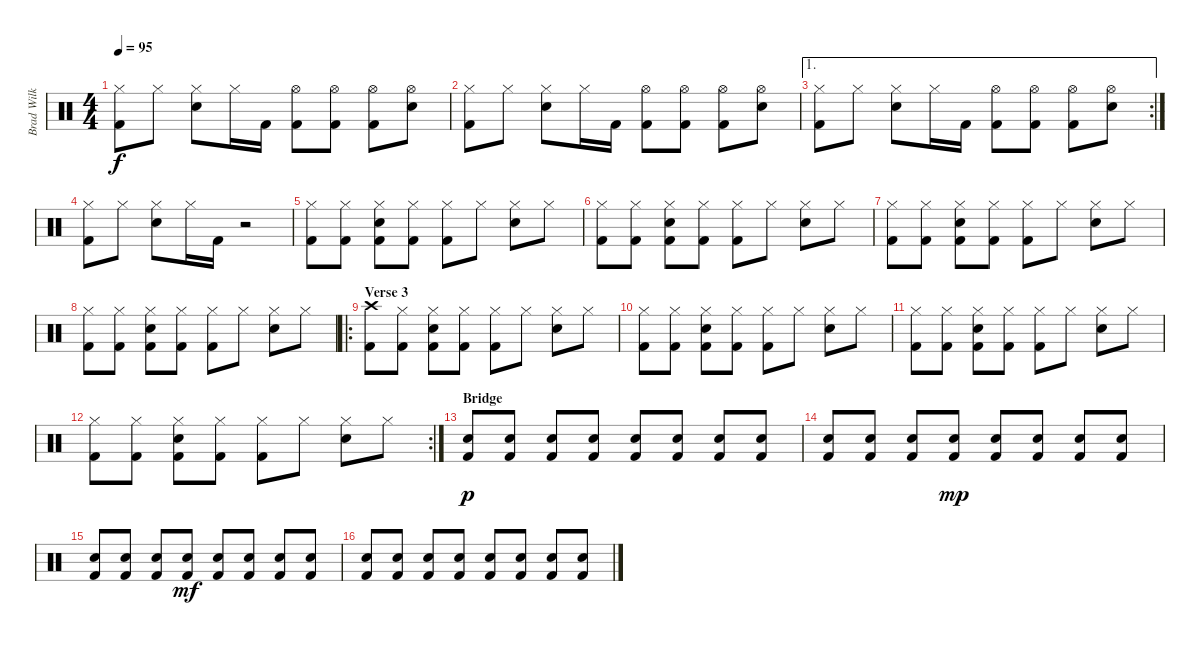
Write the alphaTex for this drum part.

\track ("Brad Wilk" "Brad Wilk") {instrument percussion}
\staff {score}
\articulation defaults
\ts (4 4)
\tempo 95
\clef neutral
\ks c
("Hi-Hat (closed)" "Kick (hit) 2").8{dy f} "Hi-Hat (closed)".8 ("Hi-Hat (closed)" "Electric Snare (hit)").8 "Hi-Hat (closed)".16 "Kick (hit) 2".16 ("Hi-Hat (open)" "Kick (hit) 2").8 ("Hi-Hat (open)" "Kick (hit) 2").8 ("Hi-Hat (open)" "Kick (hit) 2").8 ("Hi-Hat (open)" "Electric Snare (hit)").8 |
("Hi-Hat (closed)" "Kick (hit) 2").8 "Hi-Hat (closed)".8 ("Hi-Hat (closed)" "Electric Snare (hit)").8 "Hi-Hat (closed)".16 "Kick (hit) 2".16 ("Hi-Hat (open)" "Kick (hit) 2").8 ("Hi-Hat (open)" "Kick (hit) 2").8 ("Hi-Hat (open)" "Kick (hit) 2").8 ("Hi-Hat (open)" "Electric Snare (hit)").8 |
\ae 1
\rc 2
("Hi-Hat (closed)" "Kick (hit) 2").8 "Hi-Hat (closed)".8 ("Hi-Hat (closed)" "Electric Snare (hit)").8 "Hi-Hat (closed)".16 "Kick (hit) 2".16 ("Hi-Hat (open)" "Kick (hit) 2").8 ("Hi-Hat (open)" "Kick (hit) 2").8 ("Hi-Hat (open)" "Kick (hit) 2").8 ("Hi-Hat (open)" "Electric Snare (hit)").8 |
("Hi-Hat (closed)" "Kick (hit) 2").8 "Hi-Hat (closed)".8 ("Hi-Hat (closed)" "Electric Snare (hit)").8 "Hi-Hat (closed)".16 "Kick (hit) 2".16 r.2 |
("Hi-Hat (closed)" "Kick (hit) 2").8 ("Hi-Hat (closed)" "Kick (hit) 2").8 ("Hi-Hat (closed)" "Electric Snare (hit)" "Kick (hit) 2").8 ("Hi-Hat (closed)" "Kick (hit) 2").8 ("Hi-Hat (closed)" "Kick (hit) 2").8 "Hi-Hat (closed)".8 ("Hi-Hat (closed)" "Electric Snare (hit)").8 "Hi-Hat (closed)".8 |
("Hi-Hat (closed)" "Kick (hit) 2").8 ("Hi-Hat (closed)" "Kick (hit) 2").8 ("Hi-Hat (closed)" "Electric Snare (hit)" "Kick (hit) 2").8 ("Hi-Hat (closed)" "Kick (hit) 2").8 ("Hi-Hat (closed)" "Kick (hit) 2").8 "Hi-Hat (closed)".8 ("Hi-Hat (closed)" "Electric Snare (hit)").8 "Hi-Hat (closed)".8 |
("Hi-Hat (closed)" "Kick (hit) 2").8 ("Hi-Hat (closed)" "Kick (hit) 2").8 ("Hi-Hat (closed)" "Electric Snare (hit)" "Kick (hit) 2").8 ("Hi-Hat (closed)" "Kick (hit) 2").8 ("Hi-Hat (closed)" "Kick (hit) 2").8 "Hi-Hat (closed)".8 ("Hi-Hat (closed)" "Electric Snare (hit)").8 "Hi-Hat (closed)".8 |
("Hi-Hat (closed)" "Kick (hit) 2").8 ("Hi-Hat (closed)" "Kick (hit) 2").8 ("Hi-Hat (closed)" "Electric Snare (hit)" "Kick (hit) 2").8 ("Hi-Hat (closed)" "Kick (hit) 2").8 ("Hi-Hat (closed)" "Kick (hit) 2").8 "Hi-Hat (closed)".8 ("Hi-Hat (closed)" "Electric Snare (hit)").8 "Hi-Hat (closed)".8 |
\ro
\section ("" "Verse 3")
("Crash high (hit)" "Kick (hit) 2").8 ("Hi-Hat (closed)" "Kick (hit) 2").8 ("Hi-Hat (closed)" "Electric Snare (hit)" "Kick (hit) 2").8 ("Hi-Hat (closed)" "Kick (hit) 2").8 ("Hi-Hat (closed)" "Kick (hit) 2").8 "Hi-Hat (closed)".8 ("Hi-Hat (closed)" "Electric Snare (hit)").8 "Hi-Hat (closed)".8 |
("Hi-Hat (closed)" "Kick (hit) 2").8 ("Hi-Hat (closed)" "Kick (hit) 2").8 ("Hi-Hat (closed)" "Electric Snare (hit)" "Kick (hit) 2").8 ("Hi-Hat (closed)" "Kick (hit) 2").8 ("Hi-Hat (closed)" "Kick (hit) 2").8 "Hi-Hat (closed)".8 ("Hi-Hat (closed)" "Electric Snare (hit)").8 "Hi-Hat (closed)".8 |
("Hi-Hat (closed)" "Kick (hit) 2").8 ("Hi-Hat (closed)" "Kick (hit) 2").8 ("Hi-Hat (closed)" "Electric Snare (hit)" "Kick (hit) 2").8 ("Hi-Hat (closed)" "Kick (hit) 2").8 ("Hi-Hat (closed)" "Kick (hit) 2").8 "Hi-Hat (closed)".8 ("Hi-Hat (closed)" "Electric Snare (hit)").8 "Hi-Hat (closed)".8 |
\rc 2
("Hi-Hat (closed)" "Kick (hit) 2").8 ("Hi-Hat (closed)" "Kick (hit) 2").8 ("Hi-Hat (closed)" "Electric Snare (hit)" "Kick (hit) 2").8 ("Hi-Hat (closed)" "Kick (hit) 2").8 ("Hi-Hat (closed)" "Kick (hit) 2").8 "Hi-Hat (closed)".8 ("Hi-Hat (closed)" "Electric Snare (hit)").8 "Hi-Hat (closed)".8 |
\section ("" "Bridge")
("Electric Snare (hit)" "Kick (hit) 2").8{dy p} ("Electric Snare (hit)" "Kick (hit) 2").8 ("Electric Snare (hit)" "Kick (hit) 2").8 ("Electric Snare (hit)" "Kick (hit) 2").8 ("Electric Snare (hit)" "Kick (hit) 2").8 ("Electric Snare (hit)" "Kick (hit) 2").8 ("Electric Snare (hit)" "Kick (hit) 2").8 ("Electric Snare (hit)" "Kick (hit) 2").8 |
("Electric Snare (hit)" "Kick (hit) 2").8 ("Electric Snare (hit)" "Kick (hit) 2").8 ("Electric Snare (hit)" "Kick (hit) 2").8 ("Electric Snare (hit)" "Kick (hit) 2").8{dy mp} ("Electric Snare (hit)" "Kick (hit) 2").8 ("Electric Snare (hit)" "Kick (hit) 2").8 ("Electric Snare (hit)" "Kick (hit) 2").8 ("Electric Snare (hit)" "Kick (hit) 2").8 |
("Electric Snare (hit)" "Kick (hit) 2").8 ("Electric Snare (hit)" "Kick (hit) 2").8 ("Electric Snare (hit)" "Kick (hit) 2").8 ("Electric Snare (hit)" "Kick (hit) 2").8{dy mf} ("Electric Snare (hit)" "Kick (hit) 2").8 ("Electric Snare (hit)" "Kick (hit) 2").8 ("Electric Snare (hit)" "Kick (hit) 2").8 ("Electric Snare (hit)" "Kick (hit) 2").8 |
("Electric Snare (hit)" "Kick (hit) 2").8 ("Electric Snare (hit)" "Kick (hit) 2").8 ("Electric Snare (hit)" "Kick (hit) 2").8 ("Electric Snare (hit)" "Kick (hit) 2").8 ("Electric Snare (hit)" "Kick (hit) 2").8 ("Electric Snare (hit)" "Kick (hit) 2").8 ("Electric Snare (hit)" "Kick (hit) 2").8 ("Electric Snare (hit)" "Kick (hit) 2").8
